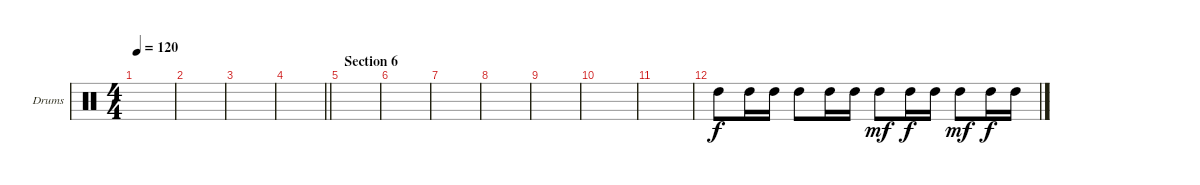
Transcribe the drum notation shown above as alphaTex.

\defaultSystemsLayout 4
\bracketExtendMode groupsimilarinstruments
\firstSystemTrackNameOrientation horizontal
\otherSystemsTrackNameOrientation horizontal
\track ("Drums Aux" "Drums") {instrument percussion}
\staff {score}
\articulation defaults
\ts (4 4)
\tempo 120
\clef neutral
\ks c
|
|
|
\barLineRight lightlight
|
\section ("" "Section 6")
|
|
|
|
|
|
|
"High Tom (hit)".8 "High Tom (hit)".16 "High Tom (hit)".16 "High Tom (hit)".8 "High Tom (hit)".16 "High Tom (hit)".16 "High Tom (hit)".8{dy mf} "High Tom (hit)".16{dy f} "High Tom (hit)".16 "High Tom (hit)".8{dy mf} "High Tom (hit)".16{dy f} "High Tom (hit)".16
